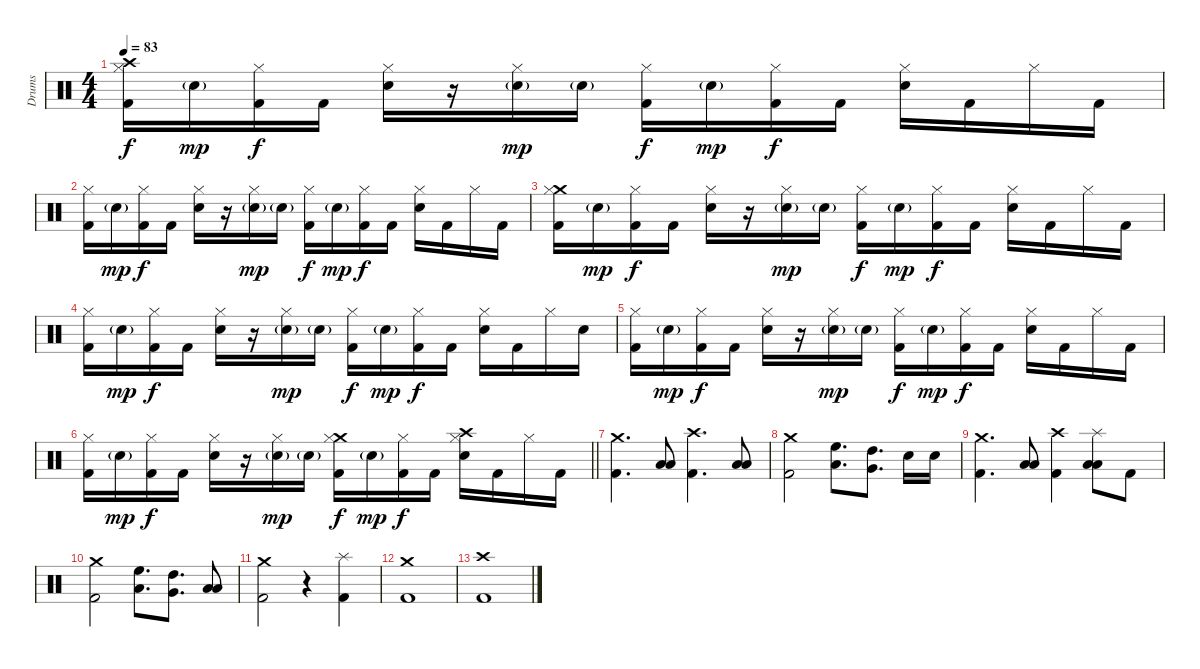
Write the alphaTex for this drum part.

\track ("Drums" "Drums") {instrument percussion}
\staff {score}
\articulation defaults
\ts (4 4)
\tempo 83
\clef neutral
\ks c
("Crash high (hit)" "Hi-Hat (closed)" "Kick (hit) 2").16{dy f} "Electric Snare (hit)"{g}.16{dy mp} ("Hi-Hat (closed)" "Kick (hit) 2").16{dy f} "Kick (hit) 2".16 ("Hi-Hat (closed)" "Electric Snare (hit)").16 r.16 ("Hi-Hat (closed)" "Electric Snare (hit)"{g}).16{dy mp} "Electric Snare (hit)"{g}.16 ("Hi-Hat (closed)" "Kick (hit) 2").16{dy f} "Electric Snare (hit)"{g}.16{dy mp} ("Hi-Hat (closed)" "Kick (hit) 2").16{dy f} "Kick (hit) 2".16 ("Hi-Hat (closed)" "Electric Snare (hit)").16 "Kick (hit) 2".16 "Hi-Hat (closed)".16 "Kick (hit) 2".16 |
("Hi-Hat (closed)" "Kick (hit) 2").16 "Electric Snare (hit)"{g}.16{dy mp} ("Hi-Hat (closed)" "Kick (hit) 2").16{dy f} "Kick (hit) 2".16 ("Hi-Hat (closed)" "Electric Snare (hit)").16 r.16 ("Hi-Hat (closed)" "Electric Snare (hit)"{g}).16{dy mp} "Electric Snare (hit)"{g}.16 ("Hi-Hat (closed)" "Kick (hit) 2").16{dy f} "Electric Snare (hit)"{g}.16{dy mp} ("Hi-Hat (closed)" "Kick (hit) 2").16{dy f} "Kick (hit) 2".16 ("Hi-Hat (closed)" "Electric Snare (hit)").16 "Kick (hit) 2".16 "Hi-Hat (closed)".16 "Kick (hit) 2".16 |
("Crash medium (hit)" "Hi-Hat (closed)" "Kick (hit) 2").16 "Electric Snare (hit)"{g}.16{dy mp} ("Hi-Hat (closed)" "Kick (hit) 2").16{dy f} "Kick (hit) 2".16 ("Hi-Hat (closed)" "Electric Snare (hit)").16 r.16 ("Hi-Hat (closed)" "Electric Snare (hit)"{g}).16{dy mp} "Electric Snare (hit)"{g}.16 ("Hi-Hat (closed)" "Kick (hit) 2").16{dy f} "Electric Snare (hit)"{g}.16{dy mp} ("Hi-Hat (closed)" "Kick (hit) 2").16{dy f} "Kick (hit) 2".16 ("Hi-Hat (closed)" "Electric Snare (hit)").16 "Kick (hit) 2".16 "Hi-Hat (closed)".16 "Kick (hit) 2".16 |
("Hi-Hat (closed)" "Kick (hit) 2").16 "Electric Snare (hit)"{g}.16{dy mp} ("Hi-Hat (closed)" "Kick (hit) 2").16{dy f} "Kick (hit) 2".16 ("Hi-Hat (closed)" "Electric Snare (hit)").16 r.16 ("Hi-Hat (closed)" "Electric Snare (hit)"{g}).16{dy mp} "Electric Snare (hit)"{g}.16 ("Hi-Hat (closed)" "Kick (hit) 2").16{dy f} "Electric Snare (hit)"{g}.16{dy mp} ("Hi-Hat (closed)" "Kick (hit) 2").16{dy f} "Kick (hit) 2".16 ("Hi-Hat (closed)" "Electric Snare (hit)").16 "Kick (hit) 2".16 "Hi-Hat (closed)".16 "Electric Snare (hit)".16 |
("Hi-Hat (closed)" "Kick (hit) 2").16 "Electric Snare (hit)"{g}.16{dy mp} ("Hi-Hat (closed)" "Kick (hit) 2").16{dy f} "Kick (hit) 2".16 ("Hi-Hat (closed)" "Electric Snare (hit)").16 r.16 ("Hi-Hat (closed)" "Electric Snare (hit)"{g}).16{dy mp} "Electric Snare (hit)"{g}.16 ("Hi-Hat (closed)" "Kick (hit) 2").16{dy f} "Electric Snare (hit)"{g}.16{dy mp} ("Hi-Hat (closed)" "Kick (hit) 2").16{dy f} "Kick (hit) 2".16 ("Hi-Hat (closed)" "Electric Snare (hit)").16 "Kick (hit) 2".16 "Hi-Hat (closed)".16 "Kick (hit) 2".16 |
\barLineRight lightlight
("Hi-Hat (closed)" "Kick (hit) 2").16 "Electric Snare (hit)"{g}.16{dy mp} ("Hi-Hat (closed)" "Kick (hit) 2").16{dy f} "Kick (hit) 2".16 ("Hi-Hat (closed)" "Electric Snare (hit)").16 r.16 ("Hi-Hat (closed)" "Electric Snare (hit)"{g}).16{dy mp} "Electric Snare (hit)"{g}.16 ("Crash medium (hit)" "Hi-Hat (closed)" "Kick (hit) 2").16{dy f} "Electric Snare (hit)"{g}.16{dy mp} ("Hi-Hat (closed)" "Kick (hit) 2").16{dy f} "Kick (hit) 2".16 ("Crash high (hit)" "Hi-Hat (closed)" "Electric Snare (hit)").16 "Kick (hit) 2".16 "Hi-Hat (closed)".16 "Kick (hit) 2".16 |
\section ("" "")
("Crash medium (hit)" "Kick (hit) 2").4{d} ("Low Tom (hit)" "Low Floor Tom (hit)").8 ("Crash high (hit)" "Kick (hit) 2").4{d} ("Low Tom (hit)" "Low Floor Tom (hit)").8 |
("Crash medium (hit)" "Kick (hit) 2").2 ("High Floor Tom (hit)" "Low Tom (hit)").8{d} ("High Tom (hit)" "Very Low Tom (hit)").8{d} "Electric Snare (hit)".16 "Electric Snare (hit)".16 |
("Crash medium (hit)" "Kick (hit) 2").4{d} ("Low Tom (hit)" "Low Floor Tom (hit)").8 ("Crash high (hit)" "Kick (hit) 2").4 ("Splash (hit)" "Low Tom (hit)" "Low Floor Tom (hit)").8 "Kick (hit) 2".8 |
("Crash medium (hit)" "Kick (hit) 2").2 ("High Floor Tom (hit)" "Low Tom (hit)").8{d} ("High Tom (hit)" "Very Low Tom (hit)").8{d} ("Low Tom (hit)" "Low Floor Tom (hit)").8 |
("Crash medium (hit)" "Kick (hit) 2").2 r.4 ("Splash (hit)" "Kick (hit) 2").4 |
("Crash medium (hit)" "Kick (hit) 2").1 |
("Crash high (hit)" "Kick (hit) 2").1
